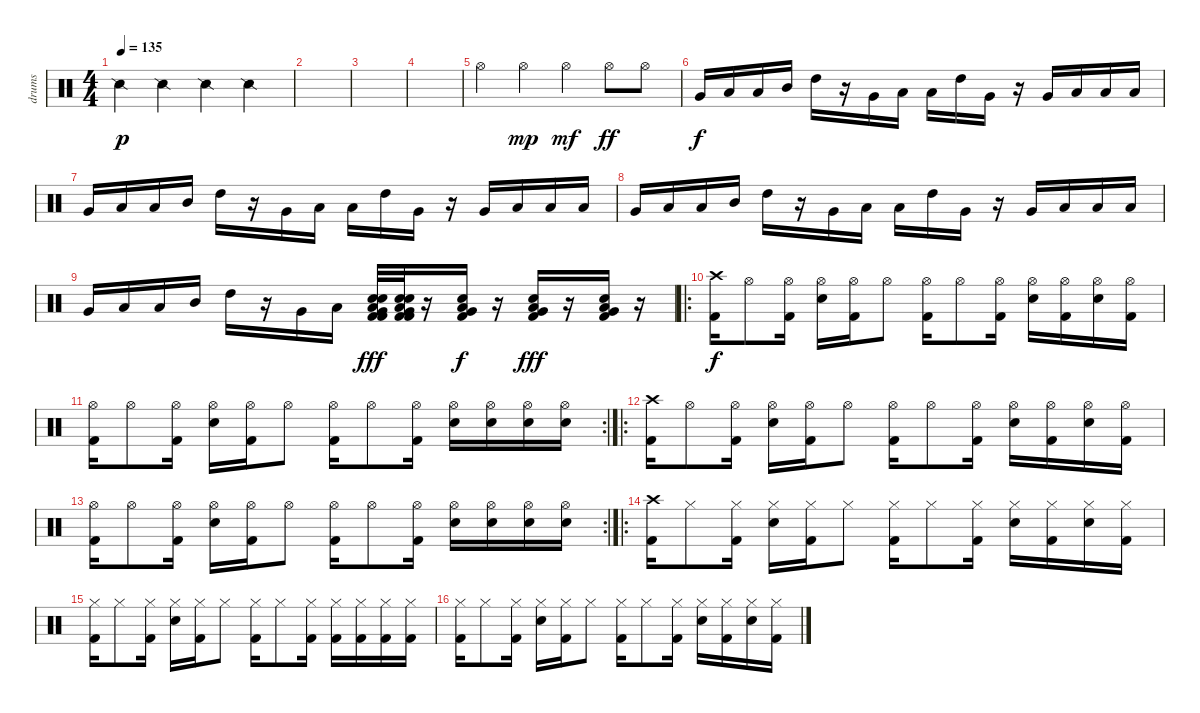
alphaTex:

\track ("drums" "drums") {instrument percussion}
\staff {score}
\articulation defaults
\ts (4 4)
\tempo 135
\clef neutral
\ks c "Snare (side stick) 2".4{dy p} "Snare (side stick) 2".4 "Snare (side stick) 2".4 "Snare (side stick) 2".4
|
|
|
|
"Hi-Hat (open)".4 "Hi-Hat (open)".4{dy mp} "Hi-Hat (open)".4{dy mf} "Hi-Hat (open)".8{dy ff} "Hi-Hat (open)".8 |
"Very Low Tom (hit)".16{dy f} "Low Tom (hit)".16 "Low Tom (hit)".16 "Mid Tom (hit)".16 "High Tom (hit)".16 r.16 "Very Low Tom (hit)".16 "Low Tom (hit)".16 "Low Tom (hit)".16 "High Tom (hit)".16 "Very Low Tom (hit)".16 r.16 "Very Low Tom (hit)".16 "Low Tom (hit)".16 "Low Tom (hit)".16 "Low Tom (hit)".16 |
"Very Low Tom (hit)".16 "Low Tom (hit)".16 "Low Tom (hit)".16 "Mid Tom (hit)".16 "High Tom (hit)".16 r.16 "Very Low Tom (hit)".16 "Low Tom (hit)".16 "Low Tom (hit)".16 "High Tom (hit)".16 "Very Low Tom (hit)".16 r.16 "Very Low Tom (hit)".16 "Low Tom (hit)".16 "Low Tom (hit)".16 "Low Tom (hit)".16 |
"Very Low Tom (hit)".16 "Low Tom (hit)".16 "Low Tom (hit)".16 "Mid Tom (hit)".16 "High Tom (hit)".16 r.16 "Very Low Tom (hit)".16 "Low Tom (hit)".16 "Low Tom (hit)".16 "High Tom (hit)".16 "Very Low Tom (hit)".16 r.16 "Very Low Tom (hit)".16 "Low Tom (hit)".16 "Low Tom (hit)".16 "Low Tom (hit)".16 |
"Very Low Tom (hit)".16 "Low Tom (hit)".16 "Low Tom (hit)".16 "Mid Tom (hit)".16 "High Tom (hit)".16 r.16 "Very Low Tom (hit)".16 "Low Tom (hit)".16 ("Electric Snare (hit)" "Kick (hit) 2" "Low Floor Tom (hit)" "Very Low Tom (hit)" "Electric Snare (hit)" "Kick (hit) 2").32{dy fff} ("Electric Snare (hit)" "Kick (hit) 2" "Low Floor Tom (hit)" "Very Low Tom (hit)" "Electric Snare (hit)" "Kick (hit) 2").32 r.16 ("Very Low Tom (hit)" "Low Floor Tom (hit)" "Electric Snare (hit)" "Kick (hit) 2").16{dy f} r.16 ("Very Low Tom (hit)" "Low Floor Tom (hit)" "Electric Snare (hit)" "Kick (hit) 2").16{dy fff} r.16 ("Very Low Tom (hit)" "Low Floor Tom (hit)" "Electric Snare (hit)" "Kick (hit) 2").16 r.16 |
\ro
("Crash high (hit)" "Kick (hit) 2").16{dy f} "Hi-Hat (open)".8 ("Hi-Hat (open)" "Kick (hit) 2").16 ("Hi-Hat (open)" "Electric Snare (hit)").16 ("Hi-Hat (open)" "Kick (hit) 2").16 "Hi-Hat (open)".8 ("Hi-Hat (open)" "Kick (hit) 2").16 "Hi-Hat (open)".8 ("Hi-Hat (open)" "Kick (hit) 2").16 ("Hi-Hat (open)" "Electric Snare (hit)").16 ("Hi-Hat (open)" "Kick (hit) 2").16 ("Hi-Hat (open)" "Electric Snare (hit)").16 ("Hi-Hat (open)" "Kick (hit) 2").16 |
\rc 2
("Hi-Hat (open)" "Kick (hit) 2").16 "Hi-Hat (open)".8 ("Hi-Hat (open)" "Kick (hit) 2").16 ("Hi-Hat (open)" "Electric Snare (hit)").16 ("Hi-Hat (open)" "Kick (hit) 2").16 "Hi-Hat (open)".8 ("Hi-Hat (open)" "Kick (hit) 2").16 "Hi-Hat (open)".8 ("Hi-Hat (open)" "Kick (hit) 2").16 ("Hi-Hat (open)" "Electric Snare (hit)").16 ("Hi-Hat (open)" "Electric Snare (hit)").16 ("Hi-Hat (open)" "Electric Snare (hit)").16 ("Hi-Hat (open)" "Electric Snare (hit)").16 |
\ro
("Crash high (hit)" "Kick (hit) 2").16 "Hi-Hat (open)".8 ("Hi-Hat (open)" "Kick (hit) 2").16 ("Hi-Hat (open)" "Electric Snare (hit)").16 ("Hi-Hat (open)" "Kick (hit) 2").16 "Hi-Hat (open)".8 ("Hi-Hat (open)" "Kick (hit) 2").16 "Hi-Hat (open)".8 ("Hi-Hat (open)" "Kick (hit) 2").16 ("Hi-Hat (open)" "Electric Snare (hit)").16 ("Hi-Hat (open)" "Kick (hit) 2").16 ("Hi-Hat (open)" "Electric Snare (hit)").16 ("Hi-Hat (open)" "Kick (hit) 2").16 |
\rc 2
("Hi-Hat (open)" "Kick (hit) 2").16 "Hi-Hat (open)".8 ("Hi-Hat (open)" "Kick (hit) 2").16 ("Hi-Hat (open)" "Electric Snare (hit)").16 ("Hi-Hat (open)" "Kick (hit) 2").16 "Hi-Hat (open)".8 ("Hi-Hat (open)" "Kick (hit) 2").16 "Hi-Hat (open)".8 ("Hi-Hat (open)" "Kick (hit) 2").16 ("Hi-Hat (open)" "Electric Snare (hit)").16 ("Hi-Hat (open)" "Electric Snare (hit)").16 ("Hi-Hat (open)" "Electric Snare (hit)").16 ("Hi-Hat (open)" "Electric Snare (hit)").16 |
\ro
("Crash high (hit)" "Kick (hit) 2").16 "Hi-Hat (closed)".8 ("Hi-Hat (closed)" "Kick (hit) 2").16 ("Hi-Hat (closed)" "Electric Snare (hit)").16 ("Hi-Hat (closed)" "Kick (hit) 2").16 "Hi-Hat (closed)".8 ("Hi-Hat (closed)" "Kick (hit) 2").16 "Hi-Hat (closed)".8 ("Hi-Hat (closed)" "Kick (hit) 2").16 ("Hi-Hat (closed)" "Electric Snare (hit)").16 ("Hi-Hat (closed)" "Kick (hit) 2").16 ("Hi-Hat (closed)" "Electric Snare (hit)").16 ("Hi-Hat (closed)" "Kick (hit) 2").16 |
("Hi-Hat (closed)" "Kick (hit) 2").16 "Hi-Hat (closed)".8 ("Hi-Hat (closed)" "Kick (hit) 2").16 ("Hi-Hat (closed)" "Electric Snare (hit)").16 ("Hi-Hat (closed)" "Kick (hit) 2").16 "Hi-Hat (closed)".8 ("Hi-Hat (closed)" "Kick (hit) 2").16 "Hi-Hat (closed)".8 ("Hi-Hat (closed)" "Kick (hit) 2").16 ("Hi-Hat (closed)" "Kick (hit) 2").16 ("Hi-Hat (closed)" "Kick (hit) 2").16 ("Hi-Hat (closed)" "Kick (hit) 2").16 ("Hi-Hat (closed)" "Kick (hit) 2").16 |
("Hi-Hat (closed)" "Kick (hit) 2").16 "Hi-Hat (closed)".8 ("Hi-Hat (closed)" "Kick (hit) 2").16 ("Hi-Hat (closed)" "Electric Snare (hit)").16 ("Hi-Hat (closed)" "Kick (hit) 2").16 "Hi-Hat (closed)".8 ("Hi-Hat (closed)" "Kick (hit) 2").16 "Hi-Hat (closed)".8 ("Hi-Hat (closed)" "Kick (hit) 2").16 ("Hi-Hat (closed)" "Electric Snare (hit)").16 ("Hi-Hat (closed)" "Kick (hit) 2").16 ("Hi-Hat (closed)" "Electric Snare (hit)").16 ("Hi-Hat (closed)" "Kick (hit) 2").16
